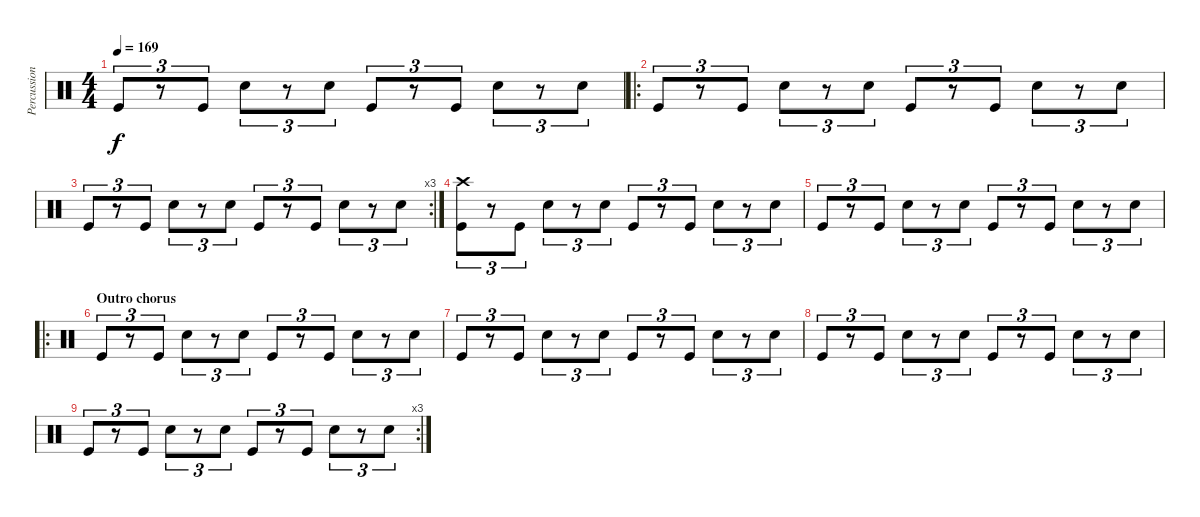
\track ("Percussion" "Percussion") {instrument percussion}
\staff {score}
\articulation defaults
\ts (4 4)
\tempo 169
\clef neutral
\ks c "Kick (hit)".8{tu (3 2) dy f}
r.8{tu (3 2)} "Kick (hit)".8{tu (3 2)} "Snare (hit) 2".8{tu (3 2)} r.8{tu (3 2)} "Snare (hit) 2".8{tu (3 2)} "Kick (hit)".8{tu (3 2)} r.8{tu (3 2)} "Kick (hit)".8{tu (3 2)} "Snare (hit) 2".8{tu (3 2)} r.8{tu (3 2)} "Snare (hit) 2".8{tu (3 2)} |
\ro "Kick (hit)".8{tu (3 2)}
r.8{tu (3 2)} "Kick (hit)".8{tu (3 2)} "Snare (hit) 2".8{tu (3 2)} r.8{tu (3 2)} "Snare (hit) 2".8{tu (3 2)} "Kick (hit)".8{tu (3 2)} r.8{tu (3 2)} "Kick (hit)".8{tu (3 2)} "Snare (hit) 2".8{tu (3 2)} r.8{tu (3 2)} "Snare (hit) 2".8{tu (3 2)} |
\rc 3 "Kick (hit)".8{tu (3 2)}
r.8{tu (3 2)} "Kick (hit)".8{tu (3 2)} "Snare (hit) 2".8{tu (3 2)} r.8{tu (3 2)} "Snare (hit) 2".8{tu (3 2)} "Kick (hit)".8{tu (3 2)} r.8{tu (3 2)} "Kick (hit)".8{tu (3 2)} "Snare (hit) 2".8{tu (3 2)} r.8{tu (3 2)} "Snare (hit) 2".8{tu (3 2)} |
("Crash high (hit)" "Kick (hit)").8{tu (3 2)} r.8{tu (3 2)} "Kick (hit)".8{tu (3 2)} "Snare (hit) 2".8{tu (3 2)} r.8{tu (3 2)} "Snare (hit) 2".8{tu (3 2)} "Kick (hit)".8{tu (3 2)} r.8{tu (3 2)} "Kick (hit)".8{tu (3 2)} "Snare (hit) 2".8{tu (3 2)} r.8{tu (3 2)} "Snare (hit) 2".8{tu (3 2)} |
"Kick (hit)".8{tu (3 2)} r.8{tu (3 2)} "Kick (hit)".8{tu (3 2)} "Snare (hit) 2".8{tu (3 2)} r.8{tu (3 2)} "Snare (hit) 2".8{tu (3 2)} "Kick (hit)".8{tu (3 2)} r.8{tu (3 2)} "Kick (hit)".8{tu (3 2)} "Snare (hit) 2".8{tu (3 2)} r.8{tu (3 2)} "Snare (hit) 2".8{tu (3 2)} |
\ro
\section ("" "Outro chorus")
"Kick (hit)".8{tu (3 2)} r.8{tu (3 2)} "Kick (hit)".8{tu (3 2)} "Snare (hit) 2".8{tu (3 2)} r.8{tu (3 2)} "Snare (hit) 2".8{tu (3 2)} "Kick (hit)".8{tu (3 2)} r.8{tu (3 2)} "Kick (hit)".8{tu (3 2)} "Snare (hit) 2".8{tu (3 2)} r.8{tu (3 2)} "Snare (hit) 2".8{tu (3 2)} |
"Kick (hit)".8{tu (3 2)} r.8{tu (3 2)} "Kick (hit)".8{tu (3 2)} "Snare (hit) 2".8{tu (3 2)} r.8{tu (3 2)} "Snare (hit) 2".8{tu (3 2)} "Kick (hit)".8{tu (3 2)} r.8{tu (3 2)} "Kick (hit)".8{tu (3 2)} "Snare (hit) 2".8{tu (3 2)} r.8{tu (3 2)} "Snare (hit) 2".8{tu (3 2)} |
"Kick (hit)".8{tu (3 2)} r.8{tu (3 2)} "Kick (hit)".8{tu (3 2)} "Snare (hit) 2".8{tu (3 2)} r.8{tu (3 2)} "Snare (hit) 2".8{tu (3 2)} "Kick (hit)".8{tu (3 2)} r.8{tu (3 2)} "Kick (hit)".8{tu (3 2)} "Snare (hit) 2".8{tu (3 2)} r.8{tu (3 2)} "Snare (hit) 2".8{tu (3 2)} |
\rc 3 "Kick (hit)".8{tu (3 2)}
r.8{tu (3 2)} "Kick (hit)".8{tu (3 2)} "Snare (hit) 2".8{tu (3 2)} r.8{tu (3 2)} "Snare (hit) 2".8{tu (3 2)} "Kick (hit)".8{tu (3 2)} r.8{tu (3 2)} "Kick (hit)".8{tu (3 2)} "Snare (hit) 2".8{tu (3 2)} r.8{tu (3 2)} "Snare (hit) 2".8{tu (3 2)}
